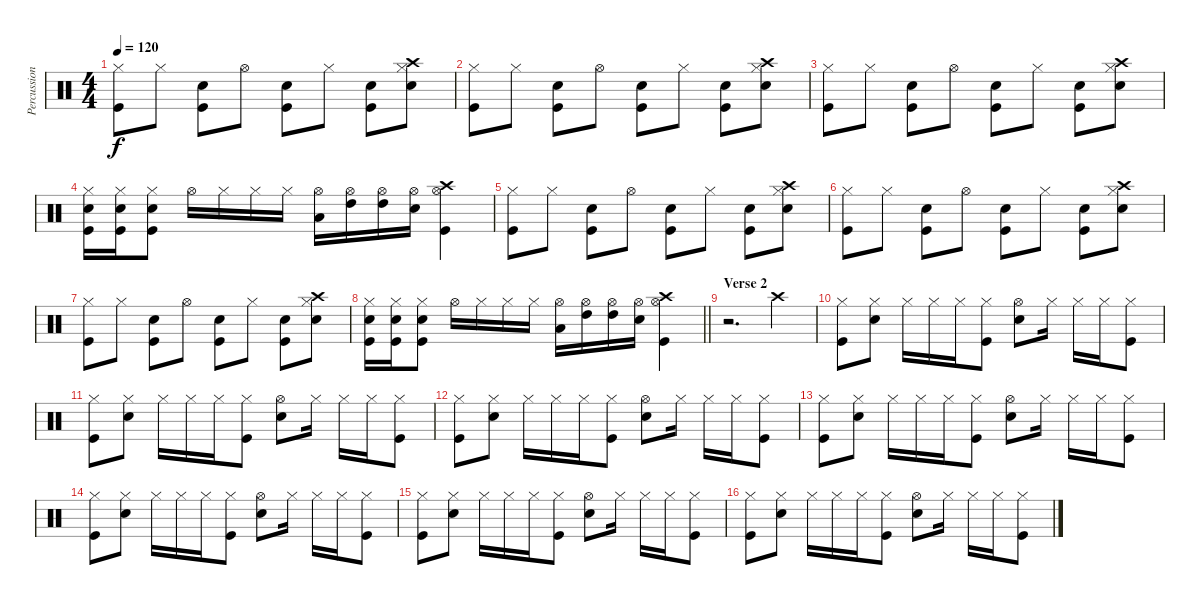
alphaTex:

\track ("Percussion" "Percussion") {instrument percussion}
\staff {score}
\articulation defaults
\ts (4 4)
\tempo 120
\clef neutral
\ks c
("Hi-Hat (closed)" "Kick (hit)").8{dy f} "Hi-Hat (closed)".8 ("Electric Snare (hit)" "Kick (hit)").8 "Hi-Hat (open)".8 ("Electric Snare (hit)" "Kick (hit)").8 "Hi-Hat (closed)".8 ("Electric Snare (hit)" "Kick (hit)").8 ("Hi-Hat (closed)" "Crash high (hit)" "Snare (hit) 2").8 |
("Hi-Hat (closed)" "Kick (hit)").8 "Hi-Hat (closed)".8 ("Electric Snare (hit)" "Kick (hit)").8 "Hi-Hat (open)".8 ("Electric Snare (hit)" "Kick (hit)").8 "Hi-Hat (closed)".8 ("Electric Snare (hit)" "Kick (hit)").8 ("Hi-Hat (closed)" "Crash high (hit)" "Snare (hit) 2").8 |
("Hi-Hat (closed)" "Kick (hit)").8 "Hi-Hat (closed)".8 ("Electric Snare (hit)" "Kick (hit)").8 "Hi-Hat (open)".8 ("Electric Snare (hit)" "Kick (hit)").8 "Hi-Hat (closed)".8 ("Electric Snare (hit)" "Kick (hit)").8 ("Hi-Hat (closed)" "Crash high (hit)" "Snare (hit) 2").8 |
("Hi-Hat (closed)" "Snare (hit) 2" "Kick (hit)").16 ("Hi-Hat (closed)" "Snare (hit) 2" "Kick (hit)").16 ("Hi-Hat (closed)" "Snare (hit) 2" "Kick (hit)").8 "Hi-Hat (open)".16 "Hi-Hat (closed)".16 "Hi-Hat (closed)".16 "Hi-Hat (closed)".16 ("Hi-Hat (open)" "Low Tom (hit)").16 ("Hi-Hat (open)" "High Tom (hit)").16 ("Hi-Hat (open)" "High Tom (hit)").16 ("Hi-Hat (open)" "Snare (hit) 2").16 ("Hi-Hat (open)" "Crash high (hit)" "Kick (hit)").4 |
("Hi-Hat (closed)" "Kick (hit)").8 "Hi-Hat (closed)".8 ("Electric Snare (hit)" "Kick (hit)").8 "Hi-Hat (open)".8 ("Electric Snare (hit)" "Kick (hit)").8 "Hi-Hat (closed)".8 ("Electric Snare (hit)" "Kick (hit)").8 ("Hi-Hat (closed)" "Crash high (hit)" "Snare (hit) 2").8 |
("Hi-Hat (closed)" "Kick (hit)").8 "Hi-Hat (closed)".8 ("Electric Snare (hit)" "Kick (hit)").8 "Hi-Hat (open)".8 ("Electric Snare (hit)" "Kick (hit)").8 "Hi-Hat (closed)".8 ("Electric Snare (hit)" "Kick (hit)").8 ("Hi-Hat (closed)" "Crash high (hit)" "Snare (hit) 2").8 |
("Hi-Hat (closed)" "Kick (hit)").8 "Hi-Hat (closed)".8 ("Electric Snare (hit)" "Kick (hit)").8 "Hi-Hat (open)".8 ("Electric Snare (hit)" "Kick (hit)").8 "Hi-Hat (closed)".8 ("Electric Snare (hit)" "Kick (hit)").8 ("Hi-Hat (closed)" "Crash high (hit)" "Snare (hit) 2").8 |
\barLineRight lightlight
("Hi-Hat (closed)" "Snare (hit) 2" "Kick (hit)").16 ("Hi-Hat (closed)" "Snare (hit) 2" "Kick (hit)").16 ("Hi-Hat (closed)" "Snare (hit) 2" "Kick (hit)").8 "Hi-Hat (open)".16 "Hi-Hat (closed)".16 "Hi-Hat (closed)".16 "Hi-Hat (closed)".16 ("Hi-Hat (open)" "Low Tom (hit)").16 ("Hi-Hat (open)" "High Tom (hit)").16 ("Hi-Hat (open)" "High Tom (hit)").16 ("Hi-Hat (open)" "Snare (hit) 2").16 ("Hi-Hat (open)" "Crash high (hit)" "Kick (hit)").4 |
\section ("" "Verse 2")
r.2{d} "Crash high (hit)".4 |
("Hi-Hat (closed)" "Kick (hit)").8 ("Hi-Hat (closed)" "Snare (hit) 2").8 "Hi-Hat (closed)".16 "Hi-Hat (closed)".16 "Hi-Hat (closed)".16 ("Hi-Hat (closed)" "Kick (hit)").8 ("Hi-Hat (open)" "Snare (hit) 2").8 "Hi-Hat (closed)".16 "Hi-Hat (closed)".16 "Hi-Hat (closed)".16 ("Hi-Hat (closed)" "Kick (hit)").8 |
("Hi-Hat (closed)" "Kick (hit)").8 ("Hi-Hat (closed)" "Snare (hit) 2").8 "Hi-Hat (closed)".16 "Hi-Hat (closed)".16 "Hi-Hat (closed)".16 ("Hi-Hat (closed)" "Kick (hit)").8 ("Hi-Hat (open)" "Snare (hit) 2").8 "Hi-Hat (closed)".16 "Hi-Hat (closed)".16 "Hi-Hat (closed)".16 ("Hi-Hat (closed)" "Kick (hit)").8 |
("Hi-Hat (closed)" "Kick (hit)").8 ("Hi-Hat (closed)" "Snare (hit) 2").8 "Hi-Hat (closed)".16 "Hi-Hat (closed)".16 "Hi-Hat (closed)".16 ("Hi-Hat (closed)" "Kick (hit)").8 ("Hi-Hat (open)" "Snare (hit) 2").8 "Hi-Hat (closed)".16 "Hi-Hat (closed)".16 "Hi-Hat (closed)".16 ("Hi-Hat (closed)" "Kick (hit)").8 |
("Hi-Hat (closed)" "Kick (hit)").8 ("Hi-Hat (closed)" "Snare (hit) 2").8 "Hi-Hat (closed)".16 "Hi-Hat (closed)".16 "Hi-Hat (closed)".16 ("Hi-Hat (closed)" "Kick (hit)").8 ("Hi-Hat (open)" "Snare (hit) 2").8 "Hi-Hat (closed)".16 "Hi-Hat (closed)".16 "Hi-Hat (closed)".16 ("Hi-Hat (closed)" "Kick (hit)").8 |
("Hi-Hat (closed)" "Kick (hit)").8 ("Hi-Hat (closed)" "Snare (hit) 2").8 "Hi-Hat (closed)".16 "Hi-Hat (closed)".16 "Hi-Hat (closed)".16 ("Hi-Hat (closed)" "Kick (hit)").8 ("Hi-Hat (open)" "Snare (hit) 2").8 "Hi-Hat (closed)".16 "Hi-Hat (closed)".16 "Hi-Hat (closed)".16 ("Hi-Hat (closed)" "Kick (hit)").8 |
("Hi-Hat (closed)" "Kick (hit)").8 ("Hi-Hat (closed)" "Snare (hit) 2").8 "Hi-Hat (closed)".16 "Hi-Hat (closed)".16 "Hi-Hat (closed)".16 ("Hi-Hat (closed)" "Kick (hit)").8 ("Hi-Hat (open)" "Snare (hit) 2").8 "Hi-Hat (closed)".16 "Hi-Hat (closed)".16 "Hi-Hat (closed)".16 ("Hi-Hat (closed)" "Kick (hit)").8 |
("Hi-Hat (closed)" "Kick (hit)").8 ("Hi-Hat (closed)" "Snare (hit) 2").8 "Hi-Hat (closed)".16 "Hi-Hat (closed)".16 "Hi-Hat (closed)".16 ("Hi-Hat (closed)" "Kick (hit)").8 ("Hi-Hat (open)" "Snare (hit) 2").8 "Hi-Hat (closed)".16 "Hi-Hat (closed)".16 "Hi-Hat (closed)".16 ("Hi-Hat (closed)" "Kick (hit)").8
